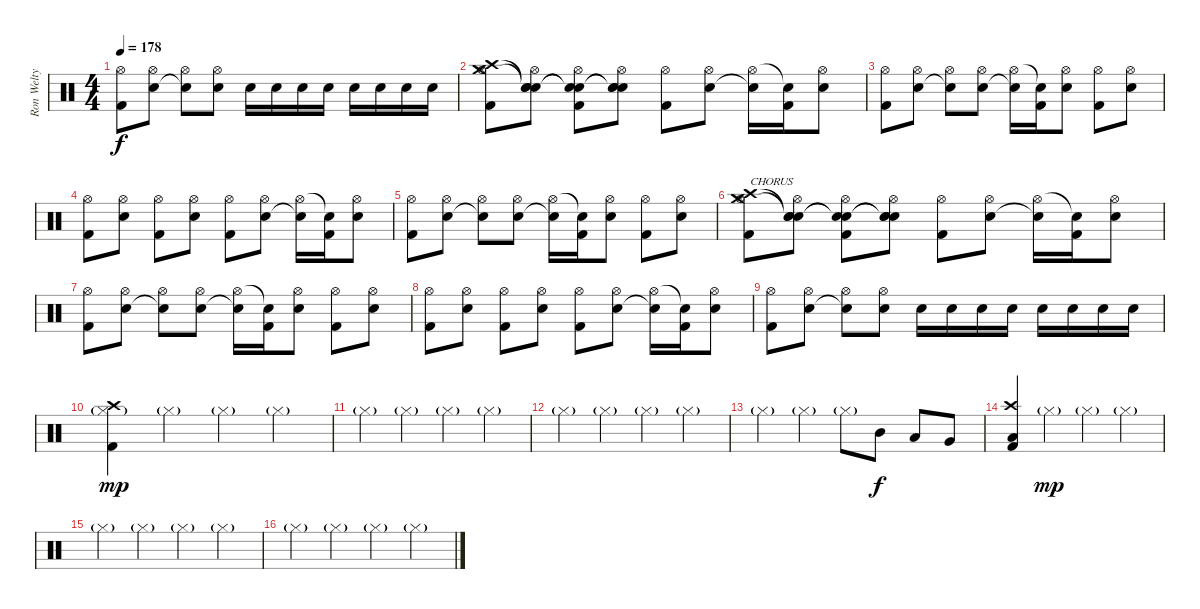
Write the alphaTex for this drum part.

\track ("Ron Welty (Drums)" "Ron Welty ") {instrument percussion}
\staff {score}
\articulation defaults
\ts (4 4)
\tempo 178
\clef neutral
\ks c
("Hi-Hat (open)" "Kick (hit) 2").8{dy f} ("Hi-Hat (open)" "Electric Snare (hit)").8 ("Hi-Hat (open)" "Snare (hit)"{t}).8 ("Hi-Hat (open)" "Electric Snare (hit)").8 "Electric Snare (hit)".16 "Electric Snare (hit)".16 "Electric Snare (hit)".16 "Electric Snare (hit)".16 "Electric Snare (hit)".16 "Electric Snare (hit)".16 "Electric Snare (hit)".16 "Electric Snare (hit)".16 |
("Crash medium (hit)" "Crash high (hit)" "Hi-Hat (open)" "Kick (hit) 2").8 ("Snare (hit)"{t} "Snare (hit)"{t} "Hi-Hat (open)" "Electric Snare (hit)").8 ("Snare (hit)"{t} "Snare (hit)"{t} "Hi-Hat (open)" "Kick (hit) 2").8 ("Snare (hit)"{t} "Snare (hit)"{t} "Hi-Hat (open)" "Electric Snare (hit)").8 ("Hi-Hat (open)" "Kick (hit) 2").8 ("Hi-Hat (open)" "Electric Snare (hit)").8 ("Hi-Hat (open)" "Snare (hit)"{t}).16 ("Snare (hit)"{t} "Kick (hit) 2").16 ("Hi-Hat (open)" "Electric Snare (hit)").8 |
("Hi-Hat (open)" "Kick (hit) 2").8 ("Hi-Hat (open)" "Electric Snare (hit)").8 ("Hi-Hat (open)" "Snare (hit)"{t}).8 ("Hi-Hat (open)" "Electric Snare (hit)").8 ("Hi-Hat (open)" "Snare (hit)"{t}).16 ("Snare (hit)"{t} "Kick (hit) 2").16 ("Hi-Hat (open)" "Electric Snare (hit)").8 ("Hi-Hat (open)" "Kick (hit) 2").8 ("Hi-Hat (open)" "Electric Snare (hit)").8 |
("Hi-Hat (open)" "Kick (hit) 2").8 ("Hi-Hat (open)" "Electric Snare (hit)").8 ("Hi-Hat (open)" "Kick (hit) 2").8 ("Hi-Hat (open)" "Electric Snare (hit)").8 ("Hi-Hat (open)" "Kick (hit) 2").8 ("Hi-Hat (open)" "Electric Snare (hit)").8 ("Hi-Hat (open)" "Snare (hit)"{t}).16 ("Snare (hit)"{t} "Kick (hit) 2").16 ("Hi-Hat (open)" "Electric Snare (hit)").8 |
("Hi-Hat (open)" "Kick (hit) 2").8 ("Hi-Hat (open)" "Electric Snare (hit)").8 ("Hi-Hat (open)" "Snare (hit)"{t}).8 ("Hi-Hat (open)" "Electric Snare (hit)").8 ("Hi-Hat (open)" "Snare (hit)"{t}).16 ("Snare (hit)"{t} "Kick (hit) 2").16 ("Hi-Hat (open)" "Electric Snare (hit)").8 ("Hi-Hat (open)" "Kick (hit) 2").8 ("Hi-Hat (open)" "Electric Snare (hit)").8 |
("Crash medium (hit)" "Crash high (hit)" "Hi-Hat (open)" "Kick (hit) 2").8{txt "CHORUS"} ("Snare (hit)"{t} "Snare (hit)"{t} "Hi-Hat (open)" "Electric Snare (hit)").8 ("Snare (hit)"{t} "Snare (hit)"{t} "Hi-Hat (open)" "Kick (hit) 2").8 ("Snare (hit)"{t} "Snare (hit)"{t} "Hi-Hat (open)" "Electric Snare (hit)").8 ("Hi-Hat (open)" "Kick (hit) 2").8 ("Hi-Hat (open)" "Electric Snare (hit)").8 ("Hi-Hat (open)" "Snare (hit)"{t}).16 ("Snare (hit)"{t} "Kick (hit) 2").16 ("Hi-Hat (open)" "Electric Snare (hit)").8 |
("Hi-Hat (open)" "Kick (hit) 2").8 ("Hi-Hat (open)" "Electric Snare (hit)").8 ("Hi-Hat (open)" "Snare (hit)"{t}).8 ("Hi-Hat (open)" "Electric Snare (hit)").8 ("Hi-Hat (open)" "Snare (hit)"{t}).16 ("Snare (hit)"{t} "Kick (hit) 2").16 ("Hi-Hat (open)" "Electric Snare (hit)").8 ("Hi-Hat (open)" "Kick (hit) 2").8 ("Hi-Hat (open)" "Electric Snare (hit)").8 |
("Hi-Hat (open)" "Kick (hit) 2").8 ("Hi-Hat (open)" "Electric Snare (hit)").8 ("Hi-Hat (open)" "Kick (hit) 2").8 ("Hi-Hat (open)" "Electric Snare (hit)").8 ("Hi-Hat (open)" "Kick (hit) 2").8 ("Hi-Hat (open)" "Electric Snare (hit)").8 ("Hi-Hat (open)" "Snare (hit)"{t}).16 ("Snare (hit)"{t} "Kick (hit) 2").16 ("Hi-Hat (open)" "Electric Snare (hit)").8 |
("Hi-Hat (open)" "Kick (hit) 2").8 ("Hi-Hat (open)" "Electric Snare (hit)").8 ("Hi-Hat (open)" "Snare (hit)"{t}).8 ("Hi-Hat (open)" "Electric Snare (hit)").8 "Electric Snare (hit)".16 "Electric Snare (hit)".16 "Electric Snare (hit)".16 "Electric Snare (hit)".16 "Electric Snare (hit)".16 "Electric Snare (hit)".16 "Electric Snare (hit)".16 "Electric Snare (hit)".16 |
("Crash high (hit)" "Hi-Hat (closed)"{g} "Kick (hit) 2").4{dy mp} "Hi-Hat (closed)"{g}.4 "Hi-Hat (closed)"{g}.4 "Hi-Hat (closed)"{g}.4 |
"Hi-Hat (closed)"{g}.4 "Hi-Hat (closed)"{g}.4 "Hi-Hat (closed)"{g}.4 "Hi-Hat (closed)"{g}.4 |
"Hi-Hat (closed)"{g}.4 "Hi-Hat (closed)"{g}.4 "Hi-Hat (closed)"{g}.4 "Hi-Hat (closed)"{g}.4 |
"Hi-Hat (closed)"{g}.4 "Hi-Hat (closed)"{g}.4 "Hi-Hat (closed)"{g}.8 "Mid Tom (hit)".8{dy f} "Low Tom (hit)".8 "Very Low Tom (hit)".8 |
("Crash high (hit)" "Low Floor Tom (hit)" "Kick (hit) 2").4 "Hi-Hat (closed)"{g}.4{dy mp} "Hi-Hat (closed)"{g}.4 "Hi-Hat (closed)"{g}.4 |
"Hi-Hat (closed)"{g}.4 "Hi-Hat (closed)"{g}.4 "Hi-Hat (closed)"{g}.4 "Hi-Hat (closed)"{g}.4 |
"Hi-Hat (closed)"{g}.4 "Hi-Hat (closed)"{g}.4 "Hi-Hat (closed)"{g}.4 "Hi-Hat (closed)"{g}.4
